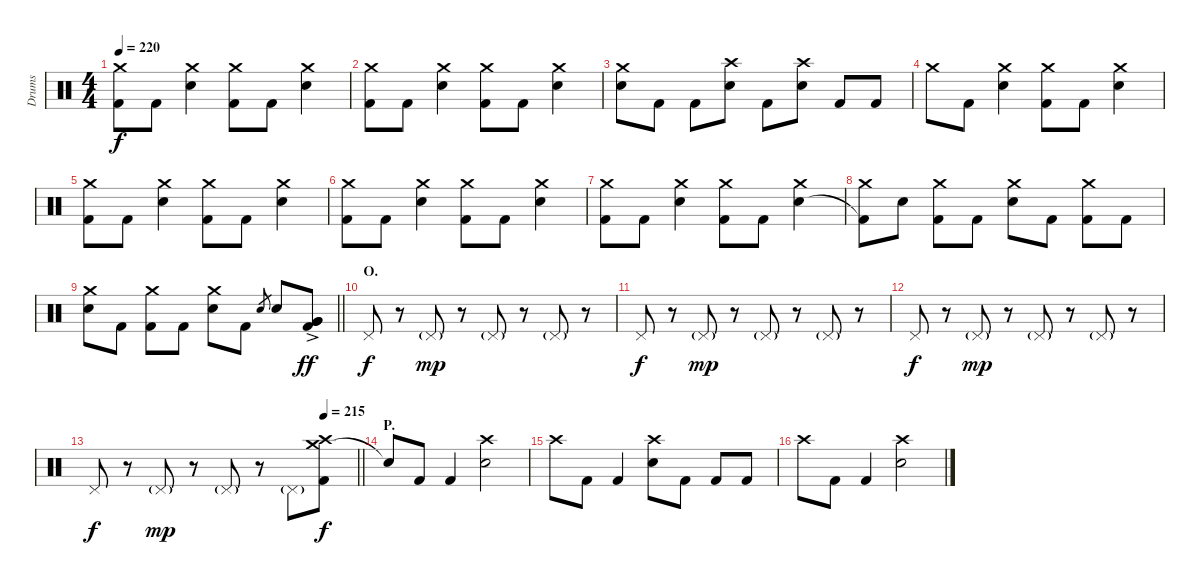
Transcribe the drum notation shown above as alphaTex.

\track ("Drums" "Drums") {instrument percussion}
\staff {score}
\articulation defaults
\ts (4 4)
\tempo 220
\clef neutral
\ks c
("Crash medium (hit)" "Kick (hit) 2").8{dy f} "Kick (hit) 2".8 ("Crash medium (hit)" "Electric Snare (hit)").4 ("Crash medium (hit)" "Kick (hit) 2").8 "Kick (hit) 2".8 ("Crash medium (hit)" "Electric Snare (hit)").4 |
("Crash medium (hit)" "Kick (hit) 2").8 "Kick (hit) 2".8 ("Crash medium (hit)" "Electric Snare (hit)").4 ("Crash medium (hit)" "Kick (hit) 2").8 "Kick (hit) 2".8 ("Crash medium (hit)" "Electric Snare (hit)").4 |
("Crash medium (hit)" "Electric Snare (hit)").8 "Kick (hit) 2".8 "Kick (hit) 2".8 ("Crash high (hit)" "Electric Snare (hit)").8 "Kick (hit) 2".8 ("Crash high (hit)" "Electric Snare (hit)").8 "Kick (hit) 2".8 "Kick (hit) 2".8 |
"Crash medium (hit)".8 "Kick (hit) 2".8 ("Crash medium (hit)" "Electric Snare (hit)").4 ("Crash medium (hit)" "Kick (hit) 2").8 "Kick (hit) 2".8 ("Crash medium (hit)" "Electric Snare (hit)").4 |
("Crash medium (hit)" "Kick (hit) 2").8 "Kick (hit) 2".8 ("Crash medium (hit)" "Electric Snare (hit)").4 ("Crash medium (hit)" "Kick (hit) 2").8 "Kick (hit) 2".8 ("Crash medium (hit)" "Electric Snare (hit)").4 |
("Crash medium (hit)" "Kick (hit) 2").8 "Kick (hit) 2".8 ("Crash medium (hit)" "Electric Snare (hit)").4 ("Crash medium (hit)" "Kick (hit) 2").8 "Kick (hit) 2".8 ("Crash medium (hit)" "Electric Snare (hit)").4 |
("Crash medium (hit)" "Kick (hit) 2").8 "Kick (hit) 2".8 ("Crash medium (hit)" "Electric Snare (hit)").4 ("Crash medium (hit)" "Kick (hit) 2").8 "Kick (hit) 2".8 ("Crash medium (hit)" "Electric Snare (hit)").4 |
("Crash medium (hit)" "Kick (hit) 2"{t}).8 "Electric Snare (hit)".8 ("Crash medium (hit)" "Kick (hit) 2").8 "Kick (hit) 2".8 ("Crash medium (hit)" "Electric Snare (hit)").8 "Kick (hit) 2".8 ("Crash medium (hit)" "Kick (hit) 2").8 "Kick (hit) 2".8 |
\barLineRight lightlight
("Crash medium (hit)" "Electric Snare (hit)").8 "Kick (hit) 2".8 ("Crash medium (hit)" "Kick (hit) 2").8 "Kick (hit) 2".8 ("Crash medium (hit)" "Electric Snare (hit)").8 "Kick (hit) 2".8 "Electric Snare (hit)".8{gr} "Electric Snare (hit)".8 ("Very Low Tom (hit)" "Very Low Tom (hit)"{ac} "Kick (hit) 2").8{dy ff} |
\section ("" "O.")
"Pedal Hi-Hat (hit)".8{dy f} r.8 "Pedal Hi-Hat (hit)"{g}.8{dy mp} r.8 "Pedal Hi-Hat (hit)"{g}.8 r.8 "Pedal Hi-Hat (hit)"{g}.8 r.8 |
"Pedal Hi-Hat (hit)".8{dy f} r.8 "Pedal Hi-Hat (hit)"{g}.8{dy mp} r.8 "Pedal Hi-Hat (hit)"{g}.8 r.8 "Pedal Hi-Hat (hit)"{g}.8 r.8 |
"Pedal Hi-Hat (hit)".8{dy f} r.8 "Pedal Hi-Hat (hit)"{g}.8{dy mp} r.8 "Pedal Hi-Hat (hit)"{g}.8 r.8 "Pedal Hi-Hat (hit)"{g}.8 r.8 |
\tempo (215 0.875)
\barLineRight lightlight "Pedal Hi-Hat (hit)".8{dy f}
r.8 "Pedal Hi-Hat (hit)"{g}.8{dy mp} r.8 "Pedal Hi-Hat (hit)"{g}.8 r.8 "Pedal Hi-Hat (hit)"{g}.8 ("Crash medium (hit)" "Crash high (hit)" "Kick (hit) 2").8{dy f} |
\section ("" "P.")
"Snare (hit)"{t}.8 "Kick (hit) 2".8 "Kick (hit) 2".4 ("Crash high (hit)" "Electric Snare (hit)").2 |
"Crash high (hit)".8 "Kick (hit) 2".8 "Kick (hit) 2".4 ("Crash high (hit)" "Electric Snare (hit)").8 "Kick (hit) 2".8 "Kick (hit) 2".8 "Kick (hit) 2".8 |
"Crash high (hit)".8 "Kick (hit) 2".8 "Kick (hit) 2".4 ("Crash high (hit)" "Electric Snare (hit)").2
